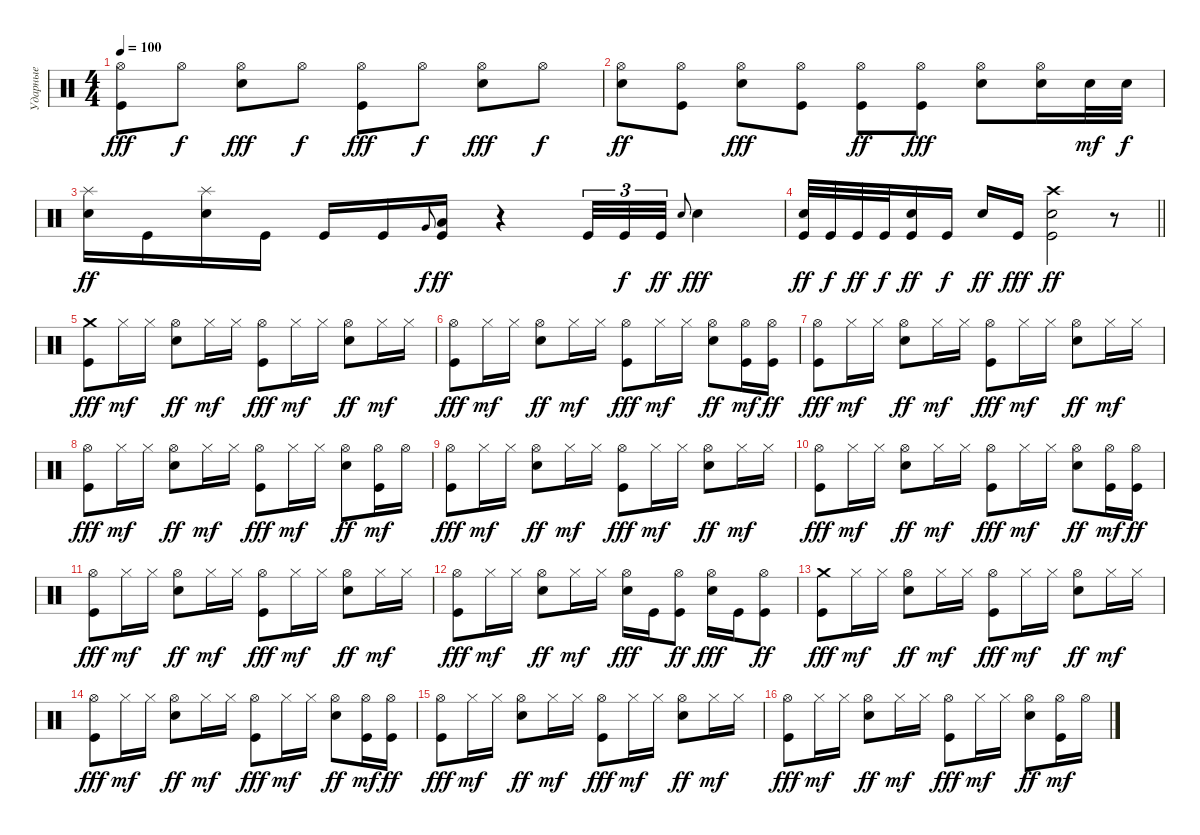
\track ("Ударные" "Ударные") {instrument percussion}
\staff {score}
\articulation defaults
\ts (4 4)
\tempo 100
\clef neutral
\ks c
("Hi-Hat (open)" "Kick (hit)").8{dy fff} "Hi-Hat (open)".8{dy f} ("Hi-Hat (open)" "Electric Snare (hit)").8{dy fff} "Hi-Hat (open)".8{dy f} ("Hi-Hat (open)" "Kick (hit)").8{dy fff} "Hi-Hat (open)".8{dy f} ("Hi-Hat (open)" "Electric Snare (hit)").8{dy fff} "Hi-Hat (open)".8{dy f} |
("Hi-Hat (open)" "Electric Snare (hit)").8{dy ff} ("Hi-Hat (open)" "Kick (hit)").8 ("Hi-Hat (open)" "Electric Snare (hit)").8{dy fff} ("Hi-Hat (open)" "Kick (hit)").8 ("Hi-Hat (open)" "Kick (hit)").8{dy ff} ("Hi-Hat (open)" "Kick (hit)").8{dy fff} ("Hi-Hat (open)" "Electric Snare (hit)").8 ("Hi-Hat (open)" "Electric Snare (hit)").16 "Electric Snare (hit)".32{dy mf} "Electric Snare (hit)".32{dy f} |
("Splash (hit)" "Electric Snare (hit)").16{dy ff} "Kick (hit)".16 ("Splash (hit)" "Electric Snare (hit)").16 "Kick (hit)".16 "Kick (hit)".16 "Kick (hit)".16 "Very Low Tom (hit)".8{gr onbeat dy f} ("Low Floor Tom (hit)" "Kick (hit)").16{dy ff} r.4 "Kick (hit)".32{tu (3 2)} "Kick (hit)".32{tu (3 2) dy f} "Kick (hit)".32{tu (3 2) dy ff} "Electric Snare (hit)".8{gr onbeat} "Electric Snare (hit)".4{dy fff} |
\barLineRight lightlight
("Electric Snare (hit)" "Kick (hit)").32{dy ff} "Kick (hit)".32{dy f} "Kick (hit)".32{dy ff} "Kick (hit)".32{dy f} ("Electric Snare (hit)" "Kick (hit)").16{dy ff} "Kick (hit)".16{dy f} "Electric Snare (hit)".16{dy ff} "Kick (hit)".16{dy fff} ("Crash high (hit)" "Electric Snare (hit)" "Kick (hit)").2{dy ff} r.8 |
("Crash medium (hit)" "Kick (hit)").8{dy fff} "Hi-Hat (closed)".16{dy mf} "Hi-Hat (closed)".16 ("Hi-Hat (open)" "Electric Snare (hit)").8{dy ff} "Hi-Hat (closed)".16{dy mf} "Hi-Hat (closed)".16 ("Hi-Hat (open)" "Kick (hit)").8{dy fff} "Hi-Hat (closed)".16{dy mf} "Hi-Hat (closed)".16 ("Hi-Hat (open)" "Electric Snare (hit)").8{dy ff} "Hi-Hat (closed)".16{dy mf} "Hi-Hat (closed)".16 |
("Hi-Hat (open)" "Kick (hit)").8{dy fff} "Hi-Hat (closed)".16{dy mf} "Hi-Hat (closed)".16 ("Hi-Hat (open)" "Electric Snare (hit)").8{dy ff} "Hi-Hat (closed)".16{dy mf} "Hi-Hat (closed)".16 ("Hi-Hat (open)" "Kick (hit)").8{dy fff} "Hi-Hat (closed)".16{dy mf} "Hi-Hat (closed)".16 ("Hi-Hat (open)" "Electric Snare (hit)").8{dy ff} ("Hi-Hat (open)" "Kick (hit)").16{dy mf} ("Hi-Hat (open)" "Kick (hit)").16{dy ff} |
("Hi-Hat (open)" "Kick (hit)").8{dy fff} "Hi-Hat (closed)".16{dy mf} "Hi-Hat (closed)".16 ("Hi-Hat (open)" "Electric Snare (hit)").8{dy ff} "Hi-Hat (closed)".16{dy mf} "Hi-Hat (closed)".16 ("Hi-Hat (open)" "Kick (hit)").8{dy fff} "Hi-Hat (closed)".16{dy mf} "Hi-Hat (closed)".16 ("Hi-Hat (open)" "Electric Snare (hit)").8{dy ff} "Hi-Hat (closed)".16{dy mf} "Hi-Hat (closed)".16 |
("Hi-Hat (open)" "Kick (hit)").8{dy fff} "Hi-Hat (closed)".16{dy mf} "Hi-Hat (closed)".16 ("Hi-Hat (open)" "Electric Snare (hit)").8{dy ff} "Hi-Hat (closed)".16{dy mf} "Hi-Hat (closed)".16 ("Hi-Hat (open)" "Kick (hit)").8{dy fff} "Hi-Hat (closed)".16{dy mf} "Hi-Hat (closed)".16 ("Hi-Hat (open)" "Electric Snare (hit)").8{dy ff} ("Hi-Hat (open)" "Kick (hit)").16{dy mf} "Hi-Hat (open)".16 |
("Hi-Hat (open)" "Kick (hit)").8{dy fff} "Hi-Hat (closed)".16{dy mf} "Hi-Hat (closed)".16 ("Hi-Hat (open)" "Electric Snare (hit)").8{dy ff} "Hi-Hat (closed)".16{dy mf} "Hi-Hat (closed)".16 ("Hi-Hat (open)" "Kick (hit)").8{dy fff} "Hi-Hat (closed)".16{dy mf} "Hi-Hat (closed)".16 ("Hi-Hat (open)" "Electric Snare (hit)").8{dy ff} "Hi-Hat (closed)".16{dy mf} "Hi-Hat (closed)".16 |
("Hi-Hat (open)" "Kick (hit)").8{dy fff} "Hi-Hat (closed)".16{dy mf} "Hi-Hat (closed)".16 ("Hi-Hat (open)" "Electric Snare (hit)").8{dy ff} "Hi-Hat (closed)".16{dy mf} "Hi-Hat (closed)".16 ("Hi-Hat (open)" "Kick (hit)").8{dy fff} "Hi-Hat (closed)".16{dy mf} "Hi-Hat (closed)".16 ("Hi-Hat (open)" "Electric Snare (hit)").8{dy ff} ("Hi-Hat (open)" "Kick (hit)").16{dy mf} ("Hi-Hat (open)" "Kick (hit)").16{dy ff} |
("Hi-Hat (open)" "Kick (hit)").8{dy fff} "Hi-Hat (closed)".16{dy mf} "Hi-Hat (closed)".16 ("Hi-Hat (open)" "Electric Snare (hit)").8{dy ff} "Hi-Hat (closed)".16{dy mf} "Hi-Hat (closed)".16 ("Hi-Hat (open)" "Kick (hit)").8{dy fff} "Hi-Hat (closed)".16{dy mf} "Hi-Hat (closed)".16 ("Hi-Hat (open)" "Electric Snare (hit)").8{dy ff} "Hi-Hat (closed)".16{dy mf} "Hi-Hat (closed)".16 |
("Hi-Hat (open)" "Kick (hit)").8{dy fff} "Hi-Hat (closed)".16{dy mf} "Hi-Hat (closed)".16 ("Hi-Hat (open)" "Electric Snare (hit)").8{dy ff} "Hi-Hat (closed)".16{dy mf} "Hi-Hat (closed)".16 ("Hi-Hat (open)" "Electric Snare (hit)").16{dy fff} "Kick (hit)".16 ("Hi-Hat (open)" "Kick (hit)").8{dy ff} ("Hi-Hat (open)" "Electric Snare (hit)").16{dy fff} "Kick (hit)".16 ("Hi-Hat (open)" "Kick (hit)").8{dy ff} |
("Crash medium (hit)" "Kick (hit)").8{dy fff} "Hi-Hat (closed)".16{dy mf} "Hi-Hat (closed)".16 ("Hi-Hat (open)" "Electric Snare (hit)").8{dy ff} "Hi-Hat (closed)".16{dy mf} "Hi-Hat (closed)".16 ("Hi-Hat (open)" "Kick (hit)").8{dy fff} "Hi-Hat (closed)".16{dy mf} "Hi-Hat (closed)".16 ("Hi-Hat (open)" "Electric Snare (hit)").8{dy ff} "Hi-Hat (closed)".16{dy mf} "Hi-Hat (closed)".16 |
("Hi-Hat (open)" "Kick (hit)").8{dy fff} "Hi-Hat (closed)".16{dy mf} "Hi-Hat (closed)".16 ("Hi-Hat (open)" "Electric Snare (hit)").8{dy ff} "Hi-Hat (closed)".16{dy mf} "Hi-Hat (closed)".16 ("Hi-Hat (open)" "Kick (hit)").8{dy fff} "Hi-Hat (closed)".16{dy mf} "Hi-Hat (closed)".16 ("Hi-Hat (open)" "Electric Snare (hit)").8{dy ff} ("Hi-Hat (open)" "Kick (hit)").16{dy mf} ("Hi-Hat (open)" "Kick (hit)").16{dy ff} |
("Hi-Hat (open)" "Kick (hit)").8{dy fff} "Hi-Hat (closed)".16{dy mf} "Hi-Hat (closed)".16 ("Hi-Hat (open)" "Electric Snare (hit)").8{dy ff} "Hi-Hat (closed)".16{dy mf} "Hi-Hat (closed)".16 ("Hi-Hat (open)" "Kick (hit)").8{dy fff} "Hi-Hat (closed)".16{dy mf} "Hi-Hat (closed)".16 ("Hi-Hat (open)" "Electric Snare (hit)").8{dy ff} "Hi-Hat (closed)".16{dy mf} "Hi-Hat (closed)".16 |
("Hi-Hat (open)" "Kick (hit)").8{dy fff} "Hi-Hat (closed)".16{dy mf} "Hi-Hat (closed)".16 ("Hi-Hat (open)" "Electric Snare (hit)").8{dy ff} "Hi-Hat (closed)".16{dy mf} "Hi-Hat (closed)".16 ("Hi-Hat (open)" "Kick (hit)").8{dy fff} "Hi-Hat (closed)".16{dy mf} "Hi-Hat (closed)".16 ("Hi-Hat (open)" "Electric Snare (hit)").8{dy ff} ("Hi-Hat (open)" "Kick (hit)").16{dy mf} "Hi-Hat (open)".16
